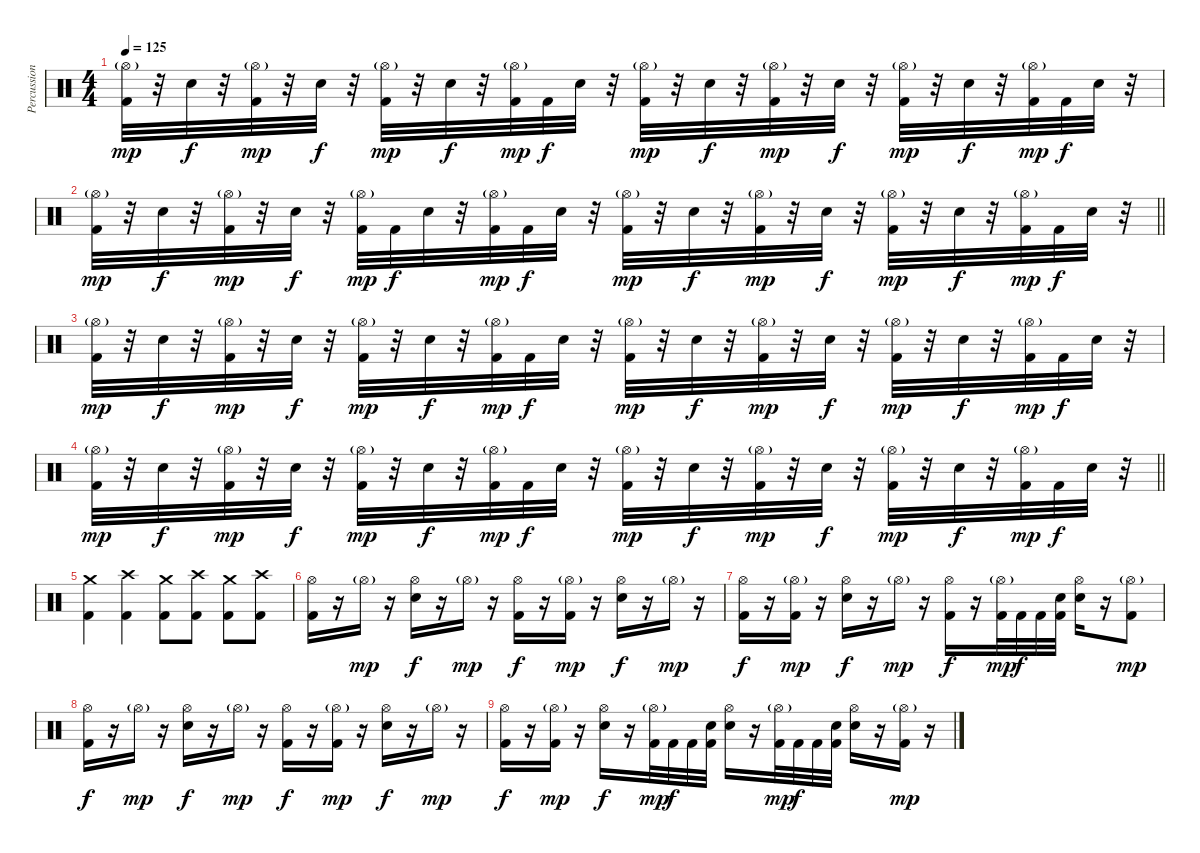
\track ("Percussion" "Percussion") {instrument percussion}
\staff {score}
\articulation defaults
\ts (4 4)
\tempo 125
\clef neutral
\ks c
("Hi-Hat (open)"{g} "Kick (hit) 2").32{dy mp} r.32 "Electric Snare (hit)".32{dy f} r.32 ("Hi-Hat (open)"{g} "Kick (hit) 2").32{dy mp} r.32 "Electric Snare (hit)".32{dy f} r.32 ("Hi-Hat (open)"{g} "Kick (hit) 2").32{dy mp} r.32 "Electric Snare (hit)".32{dy f} r.32 ("Hi-Hat (open)"{g} "Kick (hit) 2").32{dy mp} "Kick (hit) 2".32{dy f} "Electric Snare (hit)".32 r.32 ("Hi-Hat (open)"{g} "Kick (hit) 2").32{dy mp} r.32 "Electric Snare (hit)".32{dy f} r.32 ("Hi-Hat (open)"{g} "Kick (hit) 2").32{dy mp} r.32 "Electric Snare (hit)".32{dy f} r.32 ("Hi-Hat (open)"{g} "Kick (hit) 2").32{dy mp} r.32 "Electric Snare (hit)".32{dy f} r.32 ("Hi-Hat (open)"{g} "Kick (hit) 2").32{dy mp} "Kick (hit) 2".32{dy f} "Electric Snare (hit)".32 r.32 |
\barLineRight lightlight
("Hi-Hat (open)"{g} "Kick (hit) 2").32{dy mp} r.32 "Electric Snare (hit)".32{dy f} r.32 ("Hi-Hat (open)"{g} "Kick (hit) 2").32{dy mp} r.32 "Electric Snare (hit)".32{dy f} r.32 ("Hi-Hat (open)"{g} "Kick (hit) 2").32{dy mp} "Kick (hit) 2".32{dy f} "Electric Snare (hit)".32 r.32 ("Hi-Hat (open)"{g} "Kick (hit) 2").32{dy mp} "Kick (hit) 2".32{dy f} "Electric Snare (hit)".32 r.32 ("Hi-Hat (open)"{g} "Kick (hit) 2").32{dy mp} r.32 "Electric Snare (hit)".32{dy f} r.32 ("Hi-Hat (open)"{g} "Kick (hit) 2").32{dy mp} r.32 "Electric Snare (hit)".32{dy f} r.32 ("Hi-Hat (open)"{g} "Kick (hit) 2").32{dy mp} r.32 "Electric Snare (hit)".32{dy f} r.32 ("Hi-Hat (open)"{g} "Kick (hit) 2").32{dy mp} "Kick (hit) 2".32{dy f} "Electric Snare (hit)".32 r.32 |
("Hi-Hat (open)"{g} "Kick (hit) 2").32{dy mp} r.32 "Electric Snare (hit)".32{dy f} r.32 ("Hi-Hat (open)"{g} "Kick (hit) 2").32{dy mp} r.32 "Electric Snare (hit)".32{dy f} r.32 ("Hi-Hat (open)"{g} "Kick (hit) 2").32{dy mp} r.32 "Electric Snare (hit)".32{dy f} r.32 ("Hi-Hat (open)"{g} "Kick (hit) 2").32{dy mp} "Kick (hit) 2".32{dy f} "Electric Snare (hit)".32 r.32 ("Hi-Hat (open)"{g} "Kick (hit) 2").32{dy mp} r.32 "Electric Snare (hit)".32{dy f} r.32 ("Hi-Hat (open)"{g} "Kick (hit) 2").32{dy mp} r.32 "Electric Snare (hit)".32{dy f} r.32 ("Hi-Hat (open)"{g} "Kick (hit) 2").32{dy mp} r.32 "Electric Snare (hit)".32{dy f} r.32 ("Hi-Hat (open)"{g} "Kick (hit) 2").32{dy mp} "Kick (hit) 2".32{dy f} "Electric Snare (hit)".32 r.32 |
\barLineRight lightlight
("Hi-Hat (open)"{g} "Kick (hit) 2").32{dy mp} r.32 "Electric Snare (hit)".32{dy f} r.32 ("Hi-Hat (open)"{g} "Kick (hit) 2").32{dy mp} r.32 "Electric Snare (hit)".32{dy f} r.32 ("Hi-Hat (open)"{g} "Kick (hit) 2").32{dy mp} r.32 "Electric Snare (hit)".32{dy f} r.32 ("Hi-Hat (open)"{g} "Kick (hit) 2").32{dy mp} "Kick (hit) 2".32{dy f} "Electric Snare (hit)".32 r.32 ("Hi-Hat (open)"{g} "Kick (hit) 2").32{dy mp} r.32 "Electric Snare (hit)".32{dy f} r.32 ("Hi-Hat (open)"{g} "Kick (hit) 2").32{dy mp} r.32 "Electric Snare (hit)".32{dy f} r.32 ("Hi-Hat (open)"{g} "Kick (hit) 2").32{dy mp} r.32 "Electric Snare (hit)".32{dy f} r.32 ("Hi-Hat (open)"{g} "Kick (hit) 2").32{dy mp} "Kick (hit) 2".32{dy f} "Electric Snare (hit)".32 r.32 |
("Kick (hit) 2" "Crash medium (hit)").4 ("Kick (hit) 2" "Crash high (hit)").4 ("Kick (hit) 2" "Crash medium (hit)").8 ("Kick (hit) 2" "Crash high (hit)").8 ("Kick (hit) 2" "Crash medium (hit)").8 ("Kick (hit) 2" "Crash high (hit)").8 |
("Hi-Hat (open)" "Kick (hit) 2").16 r.16 "Hi-Hat (open)"{g}.16{dy mp} r.16 ("Hi-Hat (open)" "Electric Snare (hit)").16{dy f} r.16 "Hi-Hat (open)"{g}.16{dy mp} r.16 ("Hi-Hat (open)" "Kick (hit) 2").16{dy f} r.16 ("Hi-Hat (open)"{g} "Kick (hit) 2").16{dy mp} r.16 ("Hi-Hat (open)" "Electric Snare (hit)").16{dy f} r.16 "Hi-Hat (open)"{g}.16{dy mp} r.16 |
("Hi-Hat (open)" "Kick (hit) 2").16{dy f} r.16 ("Hi-Hat (open)"{g} "Kick (hit) 2").16{dy mp} r.16 ("Hi-Hat (open)" "Electric Snare (hit)").16{dy f} r.16 "Hi-Hat (open)"{g}.16{dy mp} r.16 ("Hi-Hat (open)" "Kick (hit) 2").16{dy f} r.16 ("Hi-Hat (open)"{g} "Kick (hit) 2").32{dy mp} "Kick (hit) 2".32{dy f} "Kick (hit) 2".32 ("Snare (hit)" "Kick (hit) 2").32 ("Hi-Hat (open)" "Electric Snare (hit)").16 r.16 ("Hi-Hat (open)"{g} "Kick (hit) 2").8{dy mp} |
("Hi-Hat (open)" "Kick (hit) 2").16{dy f} r.16 "Hi-Hat (open)"{g}.16{dy mp} r.16 ("Hi-Hat (open)" "Electric Snare (hit)").16{dy f} r.16 "Hi-Hat (open)"{g}.16{dy mp} r.16 ("Hi-Hat (open)" "Kick (hit) 2").16{dy f} r.16 ("Hi-Hat (open)"{g} "Kick (hit) 2").16{dy mp} r.16 ("Hi-Hat (open)" "Electric Snare (hit)").16{dy f} r.16 "Hi-Hat (open)"{g}.16{dy mp} r.16 |
("Hi-Hat (open)" "Kick (hit) 2").16{dy f} r.16 ("Hi-Hat (open)"{g} "Kick (hit) 2").16{dy mp} r.16 ("Hi-Hat (open)" "Electric Snare (hit)").16{dy f} r.16 ("Hi-Hat (open)"{g} "Kick (hit) 2").32{dy mp} "Kick (hit) 2".32{dy f} "Kick (hit) 2".32 ("Snare (hit)" "Kick (hit) 2").32 ("Hi-Hat (open)" "Electric Snare (hit)").16 r.16 ("Hi-Hat (open)"{g} "Kick (hit) 2").32{dy mp} "Kick (hit) 2".32{dy f} "Kick (hit) 2".32 ("Snare (hit)" "Kick (hit) 2").32 ("Hi-Hat (open)" "Electric Snare (hit)").16 r.16 ("Kick (hit) 2" "Hi-Hat (open)"{g}).16{dy mp} r.16
